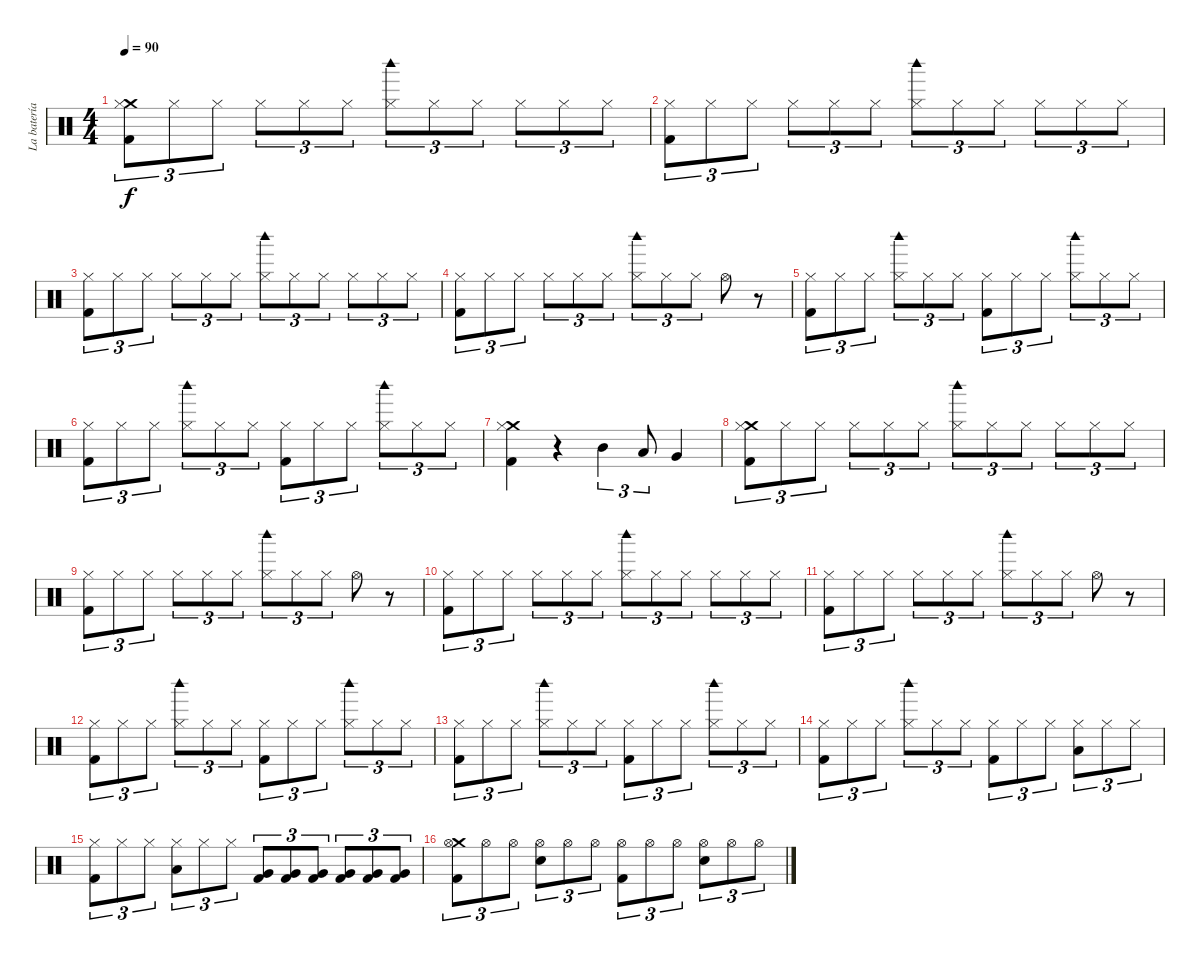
\track ("La batería (con dos huevos xD)" "La batería") {instrument percussion}
\staff {score}
\articulation defaults
\ts (4 4)
\tempo 90
\clef neutral
\ks c
("Crash medium (hit)" "Hi-Hat (closed)" "Kick (hit) 2").8{tu (3 2) dy f} "Hi-Hat (closed)".8{tu (3 2)} "Hi-Hat (closed)".8{tu (3 2)} "Hi-Hat (closed)".8{tu (3 2)} "Hi-Hat (closed)".8{tu (3 2)} "Hi-Hat (closed)".8{tu (3 2)} ("Hi-Hat (closed)" "Woodblock high (hit)").8{tu (3 2)} "Hi-Hat (closed)".8{tu (3 2)} "Hi-Hat (closed)".8{tu (3 2)} "Hi-Hat (closed)".8{tu (3 2)} "Hi-Hat (closed)".8{tu (3 2)} "Hi-Hat (closed)".8{tu (3 2)} |
("Hi-Hat (closed)" "Kick (hit) 2").8{tu (3 2)} "Hi-Hat (closed)".8{tu (3 2)} "Hi-Hat (closed)".8{tu (3 2)} "Hi-Hat (closed)".8{tu (3 2)} "Hi-Hat (closed)".8{tu (3 2)} "Hi-Hat (closed)".8{tu (3 2)} ("Hi-Hat (closed)" "Woodblock high (hit)").8{tu (3 2)} "Hi-Hat (closed)".8{tu (3 2)} "Hi-Hat (closed)".8{tu (3 2)} "Hi-Hat (closed)".8{tu (3 2)} "Hi-Hat (closed)".8{tu (3 2)} "Hi-Hat (closed)".8{tu (3 2)} |
("Hi-Hat (closed)" "Kick (hit) 2").8{tu (3 2)} "Hi-Hat (closed)".8{tu (3 2)} "Hi-Hat (closed)".8{tu (3 2)} "Hi-Hat (closed)".8{tu (3 2)} "Hi-Hat (closed)".8{tu (3 2)} "Hi-Hat (closed)".8{tu (3 2)} ("Hi-Hat (closed)" "Woodblock high (hit)").8{tu (3 2)} "Hi-Hat (closed)".8{tu (3 2)} "Hi-Hat (closed)".8{tu (3 2)} "Hi-Hat (closed)".8{tu (3 2)} "Hi-Hat (closed)".8{tu (3 2)} "Hi-Hat (closed)".8{tu (3 2)} |
("Hi-Hat (closed)" "Kick (hit) 2").8{tu (3 2)} "Hi-Hat (closed)".8{tu (3 2)} "Hi-Hat (closed)".8{tu (3 2)} "Hi-Hat (closed)".8{tu (3 2)} "Hi-Hat (closed)".8{tu (3 2)} "Hi-Hat (closed)".8{tu (3 2)} ("Hi-Hat (closed)" "Woodblock high (hit)").8{tu (3 2)} "Hi-Hat (closed)".8{tu (3 2)} "Hi-Hat (closed)".8{tu (3 2)} "Hi-Hat (open)".8 r.8 |
("Hi-Hat (closed)" "Kick (hit) 2").8{tu (3 2)} "Hi-Hat (closed)".8{tu (3 2)} "Hi-Hat (closed)".8{tu (3 2)} ("Hi-Hat (closed)" "Woodblock high (hit)").8{tu (3 2)} "Hi-Hat (closed)".8{tu (3 2)} "Hi-Hat (closed)".8{tu (3 2)} ("Hi-Hat (closed)" "Kick (hit) 2").8{tu (3 2)} "Hi-Hat (closed)".8{tu (3 2)} "Hi-Hat (closed)".8{tu (3 2)} ("Hi-Hat (closed)" "Woodblock high (hit)").8{tu (3 2)} "Hi-Hat (closed)".8{tu (3 2)} "Hi-Hat (closed)".8{tu (3 2)} |
("Hi-Hat (closed)" "Kick (hit) 2").8{tu (3 2)} "Hi-Hat (closed)".8{tu (3 2)} "Hi-Hat (closed)".8{tu (3 2)} ("Hi-Hat (closed)" "Woodblock high (hit)").8{tu (3 2)} "Hi-Hat (closed)".8{tu (3 2)} "Hi-Hat (closed)".8{tu (3 2)} ("Hi-Hat (closed)" "Kick (hit) 2").8{tu (3 2)} "Hi-Hat (closed)".8{tu (3 2)} "Hi-Hat (closed)".8{tu (3 2)} ("Hi-Hat (closed)" "Woodblock high (hit)").8{tu (3 2)} "Hi-Hat (closed)".8{tu (3 2)} "Hi-Hat (closed)".8{tu (3 2)} |
("Crash medium (hit)" "Hi-Hat (closed)" "Kick (hit) 2").4 r.4 "Mid Tom (hit)".4{tu (3 2)} "Low Tom (hit)".8{tu (3 2)} "Very Low Tom (hit)".4 |
("Crash medium (hit)" "Hi-Hat (closed)" "Kick (hit) 2").8{tu (3 2)} "Hi-Hat (closed)".8{tu (3 2)} "Hi-Hat (closed)".8{tu (3 2)} "Hi-Hat (closed)".8{tu (3 2)} "Hi-Hat (closed)".8{tu (3 2)} "Hi-Hat (closed)".8{tu (3 2)} ("Hi-Hat (closed)" "Woodblock high (hit)").8{tu (3 2)} "Hi-Hat (closed)".8{tu (3 2)} "Hi-Hat (closed)".8{tu (3 2)} "Hi-Hat (closed)".8{tu (3 2)} "Hi-Hat (closed)".8{tu (3 2)} "Hi-Hat (closed)".8{tu (3 2)} |
("Hi-Hat (closed)" "Kick (hit) 2").8{tu (3 2)} "Hi-Hat (closed)".8{tu (3 2)} "Hi-Hat (closed)".8{tu (3 2)} "Hi-Hat (closed)".8{tu (3 2)} "Hi-Hat (closed)".8{tu (3 2)} "Hi-Hat (closed)".8{tu (3 2)} ("Hi-Hat (closed)" "Woodblock high (hit)").8{tu (3 2)} "Hi-Hat (closed)".8{tu (3 2)} "Hi-Hat (closed)".8{tu (3 2)} "Hi-Hat (open)".8 r.8 |
("Hi-Hat (closed)" "Kick (hit) 2").8{tu (3 2)} "Hi-Hat (closed)".8{tu (3 2)} "Hi-Hat (closed)".8{tu (3 2)} "Hi-Hat (closed)".8{tu (3 2)} "Hi-Hat (closed)".8{tu (3 2)} "Hi-Hat (closed)".8{tu (3 2)} ("Hi-Hat (closed)" "Woodblock high (hit)").8{tu (3 2)} "Hi-Hat (closed)".8{tu (3 2)} "Hi-Hat (closed)".8{tu (3 2)} "Hi-Hat (closed)".8{tu (3 2)} "Hi-Hat (closed)".8{tu (3 2)} "Hi-Hat (closed)".8{tu (3 2)} |
("Hi-Hat (closed)" "Kick (hit) 2").8{tu (3 2)} "Hi-Hat (closed)".8{tu (3 2)} "Hi-Hat (closed)".8{tu (3 2)} "Hi-Hat (closed)".8{tu (3 2)} "Hi-Hat (closed)".8{tu (3 2)} "Hi-Hat (closed)".8{tu (3 2)} ("Hi-Hat (closed)" "Woodblock high (hit)").8{tu (3 2)} "Hi-Hat (closed)".8{tu (3 2)} "Hi-Hat (closed)".8{tu (3 2)} "Hi-Hat (open)".8 r.8 |
("Hi-Hat (closed)" "Kick (hit) 2").8{tu (3 2)} "Hi-Hat (closed)".8{tu (3 2)} "Hi-Hat (closed)".8{tu (3 2)} ("Hi-Hat (closed)" "Woodblock high (hit)").8{tu (3 2)} "Hi-Hat (closed)".8{tu (3 2)} "Hi-Hat (closed)".8{tu (3 2)} ("Hi-Hat (closed)" "Kick (hit) 2").8{tu (3 2)} "Hi-Hat (closed)".8{tu (3 2)} "Hi-Hat (closed)".8{tu (3 2)} ("Hi-Hat (closed)" "Woodblock high (hit)").8{tu (3 2)} "Hi-Hat (closed)".8{tu (3 2)} "Hi-Hat (closed)".8{tu (3 2)} |
("Hi-Hat (closed)" "Kick (hit) 2").8{tu (3 2)} "Hi-Hat (closed)".8{tu (3 2)} "Hi-Hat (closed)".8{tu (3 2)} ("Hi-Hat (closed)" "Woodblock high (hit)").8{tu (3 2)} "Hi-Hat (closed)".8{tu (3 2)} "Hi-Hat (closed)".8{tu (3 2)} ("Hi-Hat (closed)" "Kick (hit) 2").8{tu (3 2)} "Hi-Hat (closed)".8{tu (3 2)} "Hi-Hat (closed)".8{tu (3 2)} ("Hi-Hat (closed)" "Woodblock high (hit)").8{tu (3 2)} "Hi-Hat (closed)".8{tu (3 2)} "Hi-Hat (closed)".8{tu (3 2)} |
("Hi-Hat (closed)" "Kick (hit) 2").8{tu (3 2)} "Hi-Hat (closed)".8{tu (3 2)} "Hi-Hat (closed)".8{tu (3 2)} ("Hi-Hat (closed)" "Woodblock high (hit)").8{tu (3 2)} "Hi-Hat (closed)".8{tu (3 2)} "Hi-Hat (closed)".8{tu (3 2)} ("Hi-Hat (closed)" "Kick (hit) 2").8{tu (3 2)} "Hi-Hat (closed)".8{tu (3 2)} "Hi-Hat (closed)".8{tu (3 2)} ("Hi-Hat (closed)" "Low Tom (hit)").8{tu (3 2)} "Hi-Hat (closed)".8{tu (3 2)} "Hi-Hat (closed)".8{tu (3 2)} |
("Hi-Hat (closed)" "Kick (hit) 2").8{tu (3 2)} "Hi-Hat (closed)".8{tu (3 2)} "Hi-Hat (closed)".8{tu (3 2)} ("Hi-Hat (closed)" "Low Tom (hit)").8{tu (3 2)} "Hi-Hat (closed)".8{tu (3 2)} "Hi-Hat (closed)".8{tu (3 2)} ("Very Low Tom (hit)" "Kick (hit) 2").8{tu (3 2)} ("Very Low Tom (hit)" "Kick (hit) 2").8{tu (3 2)} ("Very Low Tom (hit)" "Kick (hit) 2").8{tu (3 2)} ("Very Low Tom (hit)" "Kick (hit) 2").8{tu (3 2)} ("Very Low Tom (hit)" "Kick (hit) 2").8{tu (3 2)} ("Very Low Tom (hit)" "Kick (hit) 2").8{tu (3 2)} |
("Crash medium (hit)" "Hi-Hat (open)" "Kick (hit) 2").8{tu (3 2)} "Hi-Hat (open)".8{tu (3 2)} "Hi-Hat (open)".8{tu (3 2)} ("Hi-Hat (open)" "Electric Snare (hit)").8{tu (3 2)} "Hi-Hat (open)".8{tu (3 2)} "Hi-Hat (open)".8{tu (3 2)} ("Hi-Hat (open)" "Kick (hit) 2").8{tu (3 2)} "Hi-Hat (open)".8{tu (3 2)} "Hi-Hat (open)".8{tu (3 2)} ("Hi-Hat (open)" "Electric Snare (hit)").8{tu (3 2)} "Hi-Hat (open)".8{tu (3 2)} "Hi-Hat (open)".8{tu (3 2)}
